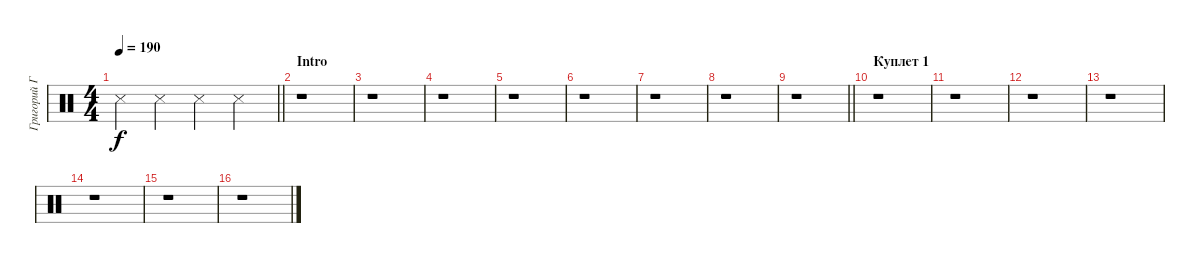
\track ("Григорий Габерман" "Григорий Г") {instrument percussion}
\staff {score}
\articulation defaults
\ts (4 4)
\tempo 190
\clef neutral
\barLineRight lightlight
\ks c "Snare (side stick) 3".4{dy f} "Snare (side stick) 3".4 "Snare (side stick) 3".4 "Snare (side stick) 3".4
|
\section ("" "Intro")
r.1 |
r.1 |
r.1 |
r.1 |
r.1 |
r.1 |
r.1 |
\barLineRight lightlight
r.1 |
\section ("" "Куплет 1")
r.1 |
r.1 |
r.1 |
r.1 |
r.1 |
r.1 |
r.1
